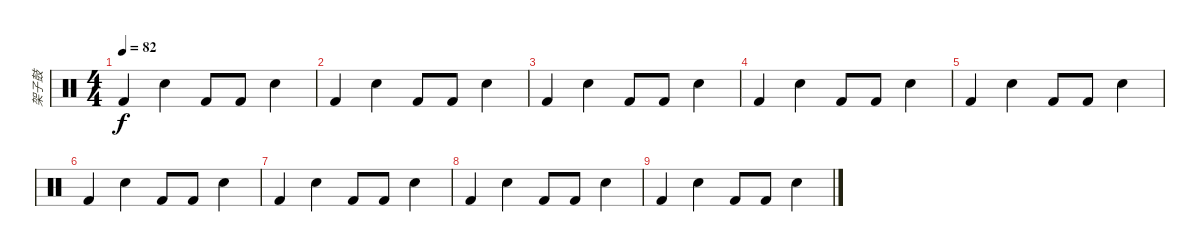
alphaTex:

\track ("架子鼓" "架子鼓") {instrument percussion}
\staff {score}
\articulation defaults
\ts (4 4)
\tempo 82
\clef neutral
\ks c "Kick (hit) 2".4{dy f} "Electric Snare (hit)".4 "Kick (hit) 2".8 "Kick (hit) 2".8 "Electric Snare (hit)".4
|
"Kick (hit) 2".4 "Electric Snare (hit)".4 "Kick (hit) 2".8 "Kick (hit) 2".8 "Electric Snare (hit)".4 |
"Kick (hit) 2".4 "Electric Snare (hit)".4 "Kick (hit) 2".8 "Kick (hit) 2".8 "Electric Snare (hit)".4 |
"Kick (hit) 2".4 "Electric Snare (hit)".4 "Kick (hit) 2".8 "Kick (hit) 2".8 "Electric Snare (hit)".4 |
"Kick (hit) 2".4 "Electric Snare (hit)".4 "Kick (hit) 2".8 "Kick (hit) 2".8 "Electric Snare (hit)".4 |
"Kick (hit) 2".4 "Electric Snare (hit)".4 "Kick (hit) 2".8 "Kick (hit) 2".8 "Electric Snare (hit)".4 |
"Kick (hit) 2".4 "Electric Snare (hit)".4 "Kick (hit) 2".8 "Kick (hit) 2".8 "Electric Snare (hit)".4 |
"Kick (hit) 2".4 "Electric Snare (hit)".4 "Kick (hit) 2".8 "Kick (hit) 2".8 "Electric Snare (hit)".4 |
"Kick (hit) 2".4 "Electric Snare (hit)".4 "Kick (hit) 2".8 "Kick (hit) 2".8 "Electric Snare (hit)".4
